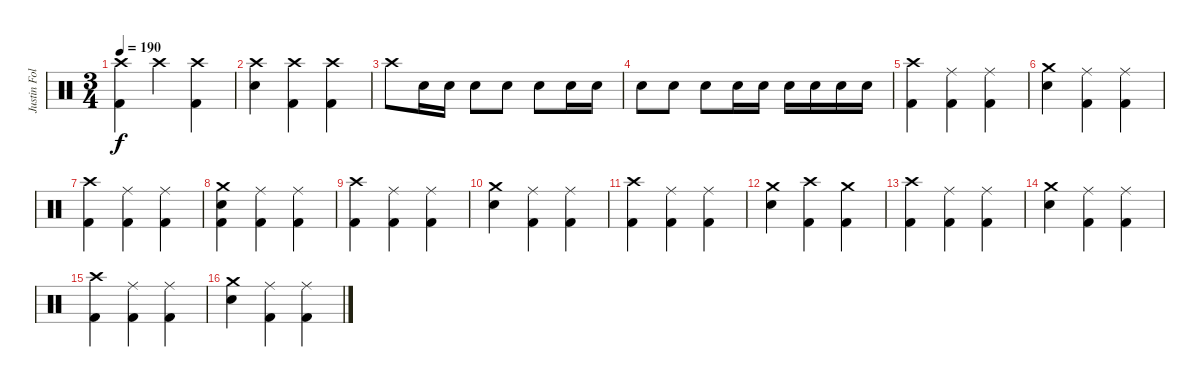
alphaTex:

\track ("Justin Foley" "Justin Fol") {instrument percussion}
\staff {score}
\articulation defaults
\ts (3 4)
\tempo 190
\clef neutral
\ks c
("Crash high (hit)" "Kick (hit) 2").4{dy f} "Crash high (hit)".4 ("Crash high (hit)" "Kick (hit) 2").4 |
("Crash high (hit)" "Electric Snare (hit)").4 ("Crash high (hit)" "Kick (hit) 2").4 ("Crash high (hit)" "Kick (hit) 2").4 |
"Crash high (hit)".8 "Electric Snare (hit)".16 "Electric Snare (hit)".16 "Electric Snare (hit)".8 "Electric Snare (hit)".8 "Electric Snare (hit)".8 "Electric Snare (hit)".16 "Electric Snare (hit)".16 |
"Electric Snare (hit)".8 "Electric Snare (hit)".8 "Electric Snare (hit)".8 "Electric Snare (hit)".16 "Electric Snare (hit)".16 "Electric Snare (hit)".16 "Electric Snare (hit)".16 "Electric Snare (hit)".16 "Electric Snare (hit)".16 |
("Crash high (hit)" "Kick (hit) 2").4 ("Ride (middle)" "Kick (hit) 2").4 ("Ride (middle)" "Kick (hit) 2").4 |
("Crash medium (hit)" "Electric Snare (hit)").4 ("Ride (middle)" "Kick (hit) 2").4 ("Ride (middle)" "Kick (hit) 2").4 |
("Crash high (hit)" "Kick (hit) 2").4 ("Ride (middle)" "Kick (hit) 2").4 ("Ride (middle)" "Kick (hit) 2").4 |
("Crash medium (hit)" "Electric Snare (hit)" "Kick (hit) 2").4 ("Ride (middle)" "Kick (hit) 2").4 ("Ride (middle)" "Kick (hit) 2").4 |
("Crash high (hit)" "Kick (hit) 2").4 ("Ride (middle)" "Kick (hit) 2").4 ("Ride (middle)" "Kick (hit) 2").4 |
("Crash medium (hit)" "Electric Snare (hit)").4 ("Ride (middle)" "Kick (hit) 2").4 ("Ride (middle)" "Kick (hit) 2").4 |
("Crash high (hit)" "Kick (hit) 2").4 ("Ride (middle)" "Kick (hit) 2").4 ("Ride (middle)" "Kick (hit) 2").4 |
("Crash medium (hit)" "Electric Snare (hit)").4 ("Crash high (hit)" "Kick (hit) 2").4 ("Crash medium (hit)" "Kick (hit) 2").4 |
("Crash high (hit)" "Kick (hit) 2").4 ("Ride (middle)" "Kick (hit) 2").4 ("Ride (middle)" "Kick (hit) 2").4 |
("Crash medium (hit)" "Electric Snare (hit)").4 ("Ride (middle)" "Kick (hit) 2").4 ("Ride (middle)" "Kick (hit) 2").4 |
("Crash high (hit)" "Kick (hit) 2").4 ("Ride (middle)" "Kick (hit) 2").4 ("Ride (middle)" "Kick (hit) 2").4 |
("Crash medium (hit)" "Electric Snare (hit)").4 ("Ride (middle)" "Kick (hit) 2").4 ("Ride (middle)" "Kick (hit) 2").4
